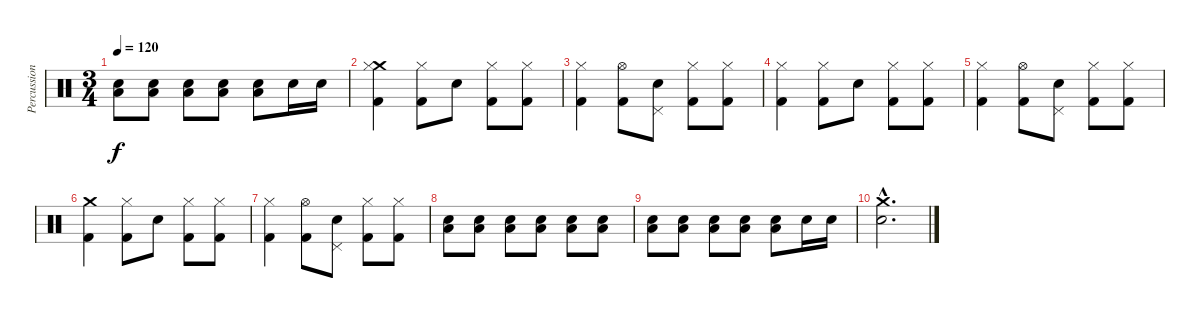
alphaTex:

\track ("Percussions" "Percussion") {instrument percussion}
\staff {score}
\articulation defaults
\ts (3 4)
\tempo 120
\clef neutral
\ks c
("Snare (hit) 2" "Low Floor Tom (hit)").8{dy f} ("Snare (hit) 2" "Low Floor Tom (hit)").8 ("Snare (hit) 2" "Low Floor Tom (hit)").8 ("Snare (hit) 2" "Low Floor Tom (hit)").8 ("Snare (hit) 2" "Low Floor Tom (hit)").8 "Snare (hit) 2".16 "Snare (hit) 2".16 |
("Crash medium (hit)" "Hi-Hat (closed)" "Kick (hit) 2").4 ("Hi-Hat (closed)" "Kick (hit) 2").8 "Snare (hit) 2".8 ("Hi-Hat (closed)" "Kick (hit) 2").8 ("Hi-Hat (closed)" "Kick (hit) 2").8 |
("Hi-Hat (closed)" "Kick (hit) 2").4 ("Hi-Hat (open)" "Kick (hit) 2").8 ("Pedal Hi-Hat (hit)" "Snare (hit) 2").8 ("Hi-Hat (closed)" "Kick (hit) 2").8 ("Hi-Hat (closed)" "Kick (hit) 2").8 |
("Hi-Hat (closed)" "Kick (hit) 2").4 ("Hi-Hat (closed)" "Kick (hit) 2").8 "Snare (hit) 2".8 ("Hi-Hat (closed)" "Kick (hit) 2").8 ("Hi-Hat (closed)" "Kick (hit) 2").8 |
("Hi-Hat (closed)" "Kick (hit) 2").4 ("Hi-Hat (open)" "Kick (hit) 2").8 ("Pedal Hi-Hat (hit)" "Snare (hit) 2").8 ("Hi-Hat (closed)" "Kick (hit) 2").8 ("Hi-Hat (closed)" "Kick (hit) 2").8 |
("Crash medium (hit)" "Kick (hit) 2").4 ("Hi-Hat (closed)" "Kick (hit) 2").8 "Snare (hit) 2".8 ("Hi-Hat (closed)" "Kick (hit) 2").8 ("Hi-Hat (closed)" "Kick (hit) 2").8 |
("Hi-Hat (closed)" "Kick (hit) 2").4 ("Hi-Hat (open)" "Kick (hit) 2").8 ("Pedal Hi-Hat (hit)" "Snare (hit) 2").8 ("Hi-Hat (closed)" "Kick (hit) 2").8 ("Hi-Hat (closed)" "Kick (hit) 2").8 |
("Snare (hit) 2" "Low Floor Tom (hit)").8{volume 4} ("Snare (hit) 2" "Low Floor Tom (hit)").8{volume 13} ("Snare (hit) 2" "Low Floor Tom (hit)").8 ("Snare (hit) 2" "Low Floor Tom (hit)").8 ("Snare (hit) 2" "Low Floor Tom (hit)").8 ("Snare (hit) 2" "Low Floor Tom (hit)").8 |
("Snare (hit) 2" "Low Floor Tom (hit)").8 ("Snare (hit) 2" "Low Floor Tom (hit)").8 ("Snare (hit) 2" "Low Floor Tom (hit)").8 ("Snare (hit) 2" "Low Floor Tom (hit)").8 ("Snare (hit) 2" "Low Floor Tom (hit)").8 "Snare (hit) 2".16 "Snare (hit) 2".16 |
("Crash medium (hit)"{hac} "Snare (hit) 2"{hac}).2{d}
